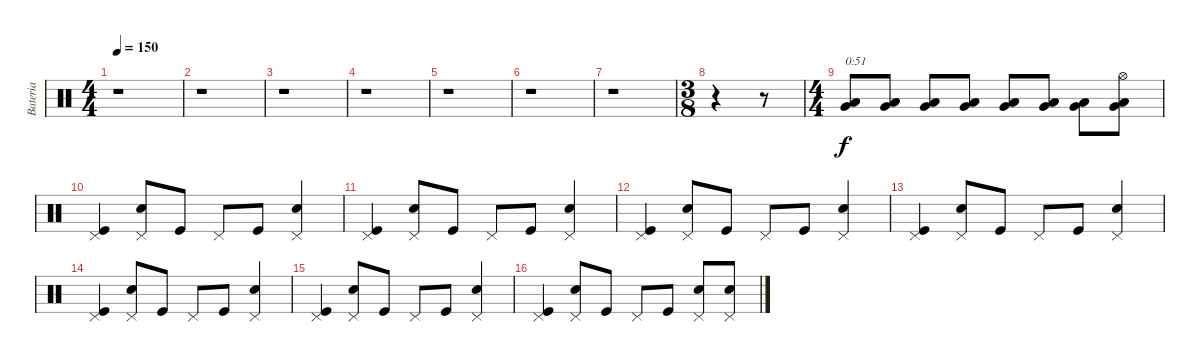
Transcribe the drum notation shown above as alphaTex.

\track ("Bateria" "Bateria") {instrument percussion}
\staff {score}
\articulation defaults
\ts (4 4)
\tempo 150
\clef neutral
\ks c
r.1{dy f} |
r.1 |
r.1 |
r.1 |
r.1 |
r.1 |
r.1 |
\ts (3 8)
r.4 r.8 |
\ts (4 4)
("Very Low Tom (hit)" "Low Floor Tom (hit)").8{txt "0:51"} ("Very Low Tom (hit)" "Low Floor Tom (hit)").8 ("Very Low Tom (hit)" "Low Floor Tom (hit)").8 ("Very Low Tom (hit)" "Low Floor Tom (hit)").8 ("Very Low Tom (hit)" "Low Floor Tom (hit)").8 ("Very Low Tom (hit)" "Low Floor Tom (hit)").8 ("Very Low Tom (hit)" "Low Floor Tom (hit)").8 ("Very Low Tom (hit)" "Low Floor Tom (hit)" "Hi-Hat (open)").8 |
("Kick (hit)" "Pedal Hi-Hat (hit)").4 ("Snare (hit) 2" "Pedal Hi-Hat (hit)").8 "Kick (hit)".8 "Pedal Hi-Hat (hit)".8 "Kick (hit)".8 ("Snare (hit) 2" "Pedal Hi-Hat (hit)").4 |
("Kick (hit)" "Pedal Hi-Hat (hit)").4 ("Snare (hit) 2" "Pedal Hi-Hat (hit)").8 "Kick (hit)".8 "Pedal Hi-Hat (hit)".8 "Kick (hit)".8 ("Snare (hit) 2" "Pedal Hi-Hat (hit)").4 |
("Kick (hit)" "Pedal Hi-Hat (hit)").4 ("Snare (hit) 2" "Pedal Hi-Hat (hit)").8 "Kick (hit)".8 "Pedal Hi-Hat (hit)".8 "Kick (hit)".8 ("Snare (hit) 2" "Pedal Hi-Hat (hit)").4 |
("Kick (hit)" "Pedal Hi-Hat (hit)").4 ("Snare (hit) 2" "Pedal Hi-Hat (hit)").8 "Kick (hit)".8 "Pedal Hi-Hat (hit)".8 "Kick (hit)".8 ("Snare (hit) 2" "Pedal Hi-Hat (hit)").4 |
("Kick (hit)" "Pedal Hi-Hat (hit)").4 ("Snare (hit) 2" "Pedal Hi-Hat (hit)").8 "Kick (hit)".8 "Pedal Hi-Hat (hit)".8 "Kick (hit)".8 ("Snare (hit) 2" "Pedal Hi-Hat (hit)").4 |
("Kick (hit)" "Pedal Hi-Hat (hit)").4 ("Snare (hit) 2" "Pedal Hi-Hat (hit)").8 "Kick (hit)".8 "Pedal Hi-Hat (hit)".8 "Kick (hit)".8 ("Snare (hit) 2" "Pedal Hi-Hat (hit)").4 |
("Kick (hit)" "Pedal Hi-Hat (hit)").4 ("Snare (hit) 2" "Pedal Hi-Hat (hit)").8 "Kick (hit)".8 "Pedal Hi-Hat (hit)".8 "Kick (hit)".8 ("Snare (hit) 2" "Pedal Hi-Hat (hit)").8 ("Snare (hit) 2" "Pedal Hi-Hat (hit)").8
